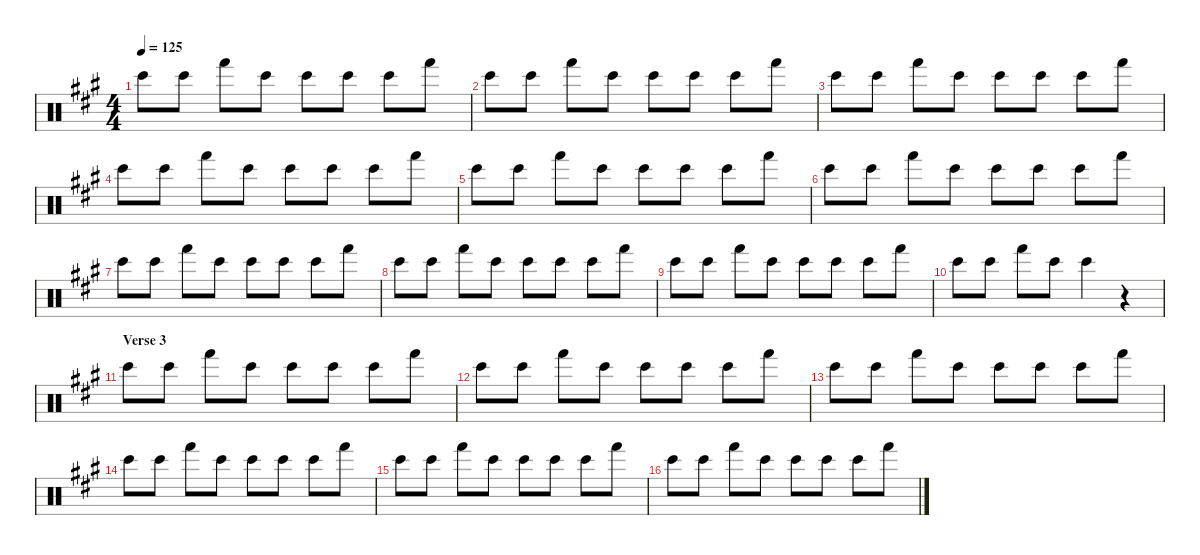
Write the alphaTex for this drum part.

\defaultSystemsLayout 4
\hideDynamics
\bracketExtendMode nobrackets
\singleTrackTrackNamePolicy hidden
\multiTrackTrackNamePolicy hidden
\otherSystemsTrackNameOrientation horizontal
\track ("Percussion" "drm.") {instrument percussion}
\staff {score}
\articulation defaults
\ts (4 4)
\tempo 125
\clef neutral
\ks a "Bongo High (hit)"{acc forcenatural}.8{dy f beam Down} "Bongo High (hit)"{acc forcenatural}.8{beam Down} "Hand (hit)"{acc forcenatural}.8{beam Down} "Bongo High (hit)"{acc forcenatural}.8{beam Down} "Bongo High (hit)"{acc forcenatural}.8{beam Down} "Bongo High (hit)"{acc forcenatural}.8{beam Down} "Bongo High (hit)"{acc forcenatural}.8{beam Down} "Hand (hit)"{acc forcenatural}.8{beam Down}
|
"Bongo High (hit)"{acc forcenatural}.8{beam Down} "Bongo High (hit)"{acc forcenatural}.8{beam Down} "Hand (hit)"{acc forcenatural}.8{beam Down} "Bongo High (hit)"{acc forcenatural}.8{beam Down} "Bongo High (hit)"{acc forcenatural}.8{beam Down} "Bongo High (hit)"{acc forcenatural}.8{beam Down} "Bongo High (hit)"{acc forcenatural}.8{beam Down} "Hand (hit)"{acc forcenatural}.8{beam Down} |
"Bongo High (hit)"{acc forcenatural}.8{beam Down} "Bongo High (hit)"{acc forcenatural}.8{beam Down} "Hand (hit)"{acc forcenatural}.8{beam Down} "Bongo High (hit)"{acc forcenatural}.8{beam Down} "Bongo High (hit)"{acc forcenatural}.8{beam Down} "Bongo High (hit)"{acc forcenatural}.8{beam Down} "Bongo High (hit)"{acc forcenatural}.8{beam Down} "Hand (hit)"{acc forcenatural}.8{beam Down} |
"Bongo High (hit)"{acc forcenatural}.8{beam Down} "Bongo High (hit)"{acc forcenatural}.8{beam Down} "Hand (hit)"{acc forcenatural}.8{beam Down} "Bongo High (hit)"{acc forcenatural}.8{beam Down} "Bongo High (hit)"{acc forcenatural}.8{beam Down} "Bongo High (hit)"{acc forcenatural}.8{beam Down} "Bongo High (hit)"{acc forcenatural}.8{beam Down} "Hand (hit)"{acc forcenatural}.8{beam Down} |
"Bongo High (hit)"{acc forcenatural}.8{beam Down} "Bongo High (hit)"{acc forcenatural}.8{beam Down} "Hand (hit)"{acc forcenatural}.8{beam Down} "Bongo High (hit)"{acc forcenatural}.8{beam Down} "Bongo High (hit)"{acc forcenatural}.8{beam Down} "Bongo High (hit)"{acc forcenatural}.8{beam Down} "Bongo High (hit)"{acc forcenatural}.8{beam Down} "Hand (hit)"{acc forcenatural}.8{beam Down} |
"Bongo High (hit)"{acc forcenatural}.8{beam Down} "Bongo High (hit)"{acc forcenatural}.8{beam Down} "Hand (hit)"{acc forcenatural}.8{beam Down} "Bongo High (hit)"{acc forcenatural}.8{beam Down} "Bongo High (hit)"{acc forcenatural}.8{beam Down} "Bongo High (hit)"{acc forcenatural}.8{beam Down} "Bongo High (hit)"{acc forcenatural}.8{beam Down} "Hand (hit)"{acc forcenatural}.8{beam Down} |
"Bongo High (hit)"{acc forcenatural}.8{beam Down} "Bongo High (hit)"{acc forcenatural}.8{beam Down} "Hand (hit)"{acc forcenatural}.8{beam Down} "Bongo High (hit)"{acc forcenatural}.8{beam Down} "Bongo High (hit)"{acc forcenatural}.8{beam Down} "Bongo High (hit)"{acc forcenatural}.8{beam Down} "Bongo High (hit)"{acc forcenatural}.8{beam Down} "Hand (hit)"{acc forcenatural}.8{beam Down} |
"Bongo High (hit)"{acc forcenatural}.8{beam Down} "Bongo High (hit)"{acc forcenatural}.8{beam Down} "Hand (hit)"{acc forcenatural}.8{beam Down} "Bongo High (hit)"{acc forcenatural}.8{beam Down} "Bongo High (hit)"{acc forcenatural}.8{beam Down} "Bongo High (hit)"{acc forcenatural}.8{beam Down} "Bongo High (hit)"{acc forcenatural}.8{beam Down} "Hand (hit)"{acc forcenatural}.8{beam Down} |
"Bongo High (hit)"{acc forcenatural}.8{beam Down} "Bongo High (hit)"{acc forcenatural}.8{beam Down} "Hand (hit)"{acc forcenatural}.8{beam Down} "Bongo High (hit)"{acc forcenatural}.8{beam Down} "Bongo High (hit)"{acc forcenatural}.8{beam Down} "Bongo High (hit)"{acc forcenatural}.8{beam Down} "Bongo High (hit)"{acc forcenatural}.8{beam Down} "Hand (hit)"{acc forcenatural}.8{beam Down} |
"Bongo High (hit)"{acc forcenatural}.8{beam Down} "Bongo High (hit)"{acc forcenatural}.8{beam Down} "Hand (hit)"{acc forcenatural}.8{beam Down} "Bongo High (hit)"{acc forcenatural}.8{beam Down} "Bongo High (hit)"{acc forcenatural}.4{beam Down} r.4{beam Down} |
\section ("" "Verse 3")
"Bongo High (hit)"{acc forcenatural}.8{beam Down} "Bongo High (hit)"{acc forcenatural}.8{beam Down} "Hand (hit)"{acc forcenatural}.8{beam Down} "Bongo High (hit)"{acc forcenatural}.8{beam Down} "Bongo High (hit)"{acc forcenatural}.8{beam Down} "Bongo High (hit)"{acc forcenatural}.8{beam Down} "Bongo High (hit)"{acc forcenatural}.8{beam Down} "Hand (hit)"{acc forcenatural}.8{beam Down} |
"Bongo High (hit)"{acc forcenatural}.8{beam Down} "Bongo High (hit)"{acc forcenatural}.8{beam Down} "Hand (hit)"{acc forcenatural}.8{beam Down} "Bongo High (hit)"{acc forcenatural}.8{beam Down} "Bongo High (hit)"{acc forcenatural}.8{beam Down} "Bongo High (hit)"{acc forcenatural}.8{beam Down} "Bongo High (hit)"{acc forcenatural}.8{beam Down} "Hand (hit)"{acc forcenatural}.8{beam Down} |
"Bongo High (hit)"{acc forcenatural}.8{beam Down} "Bongo High (hit)"{acc forcenatural}.8{beam Down} "Hand (hit)"{acc forcenatural}.8{beam Down} "Bongo High (hit)"{acc forcenatural}.8{beam Down} "Bongo High (hit)"{acc forcenatural}.8{beam Down} "Bongo High (hit)"{acc forcenatural}.8{beam Down} "Bongo High (hit)"{acc forcenatural}.8{beam Down} "Hand (hit)"{acc forcenatural}.8{beam Down} |
"Bongo High (hit)"{acc forcenatural}.8{beam Down} "Bongo High (hit)"{acc forcenatural}.8{beam Down} "Hand (hit)"{acc forcenatural}.8{beam Down} "Bongo High (hit)"{acc forcenatural}.8{beam Down} "Bongo High (hit)"{acc forcenatural}.8{beam Down} "Bongo High (hit)"{acc forcenatural}.8{beam Down} "Bongo High (hit)"{acc forcenatural}.8{beam Down} "Hand (hit)"{acc forcenatural}.8{beam Down} |
"Bongo High (hit)"{acc forcenatural}.8{beam Down} "Bongo High (hit)"{acc forcenatural}.8{beam Down} "Hand (hit)"{acc forcenatural}.8{beam Down} "Bongo High (hit)"{acc forcenatural}.8{beam Down} "Bongo High (hit)"{acc forcenatural}.8{beam Down} "Bongo High (hit)"{acc forcenatural}.8{beam Down} "Bongo High (hit)"{acc forcenatural}.8{beam Down} "Hand (hit)"{acc forcenatural}.8{beam Down} |
"Bongo High (hit)"{acc forcenatural}.8{beam Down} "Bongo High (hit)"{acc forcenatural}.8{beam Down} "Hand (hit)"{acc forcenatural}.8{beam Down} "Bongo High (hit)"{acc forcenatural}.8{beam Down} "Bongo High (hit)"{acc forcenatural}.8{beam Down} "Bongo High (hit)"{acc forcenatural}.8{beam Down} "Bongo High (hit)"{acc forcenatural}.8{beam Down} "Hand (hit)"{acc forcenatural}.8{beam Down}
